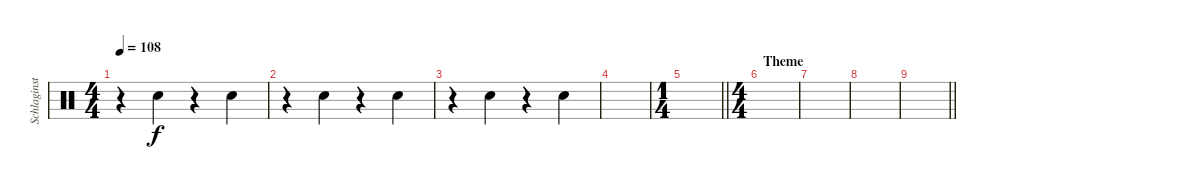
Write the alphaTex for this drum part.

\track ("Schlaginstrumente - Auswahl" "Schlaginst") {instrument percussion}
\staff {score}
\articulation defaults
\ts (4 4)
\tempo 108
\clef neutral
\ks c
r.4{dy f} "Electric Snare (hit)".4 r.4 "Electric Snare (hit)".4 |
r.4 "Electric Snare (hit)".4 r.4 "Electric Snare (hit)".4 |
r.4 "Electric Snare (hit)".4 r.4 "Electric Snare (hit)".4 |
|
\ts (1 4)
\barLineRight lightlight
|
\ts (4 4)
\section ("" "Theme")
|
|
|
\barLineRight lightlight
